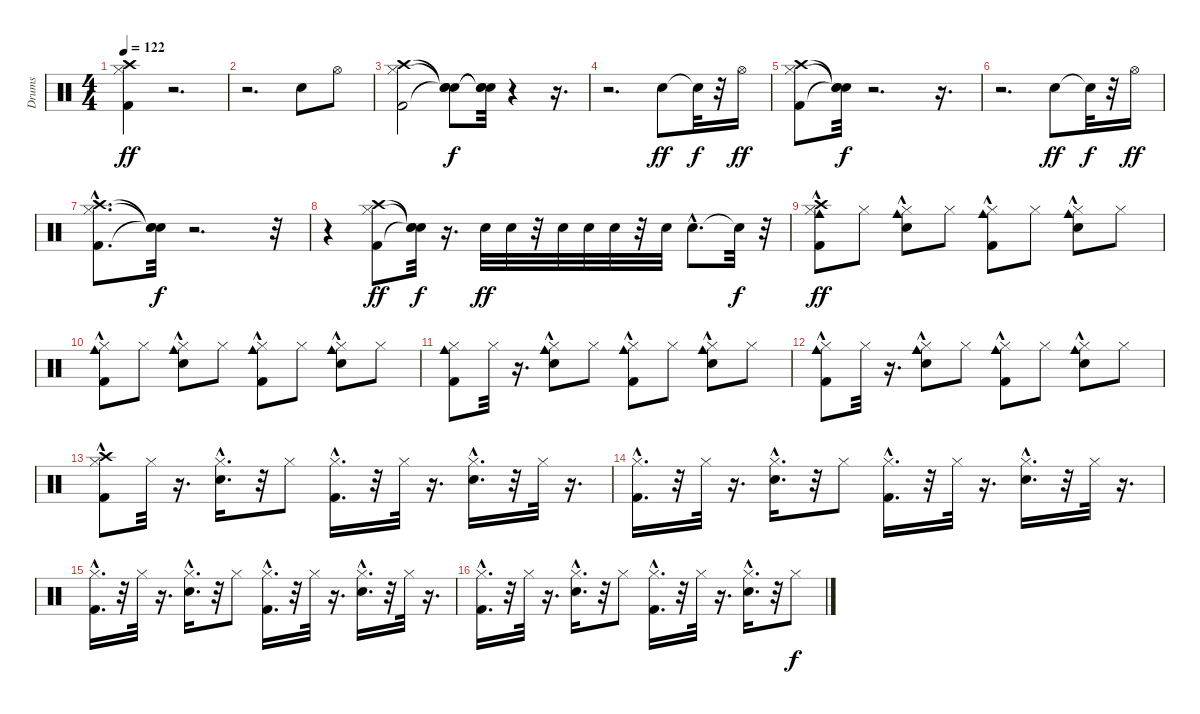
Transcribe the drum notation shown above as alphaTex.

\track ("Drums" "Drums") {instrument percussion}
\staff {score}
\articulation defaults
\ts (4 4)
\tempo 122
\clef neutral
\ks c
("Hi-Hat (closed)" "Kick (hit) 2" "Crash high (hit)").4{dy ff volume 12 balance 8} r.2{d} |
r.2{d} "Snare (hit) 2".8 "Hi-Hat (open)".8 |
("Hi-Hat (closed)" "Kick (hit) 2" "Crash high (hit)").2 ("Snare (hit)"{t} "Snare (hit)"{t} "Snare (hit)"{t}).8{dy f} ("Snare (hit)"{t} "Snare (hit)"{t} "Snare (hit)"{t}).32 r.4 r.16{d} |
r.2{d} "Snare (hit) 2".8{dy ff} "Snare (hit)"{t}.32{dy f} r.32 "Hi-Hat (open)".16{dy ff} |
("Kick (hit) 2" "Hi-Hat (closed)" "Crash high (hit)").8 ("Snare (hit)"{t} "Snare (hit)"{t} "Snare (hit)"{t}).32{dy f} r.2{d} r.16{d} |
r.2{d} "Snare (hit) 2".8{dy ff} "Snare (hit)"{t}.32{dy f} r.32 "Hi-Hat (open)".16{dy ff} |
("Hi-Hat (closed)"{hac} "Kick (hit) 2"{hac} "Crash high (hit)"{hac}).8{d} ("Snare (hit)"{t} "Snare (hit)"{t} "Snare (hit)"{t}).32{dy f} r.2{d} r.32 |
r.4 ("Hi-Hat (closed)" "Kick (hit) 2" "Crash high (hit)").8{dy ff} ("Snare (hit)"{t} "Snare (hit)"{t} "Snare (hit)"{t}).32{dy f} r.16{d} "Snare (hit) 2".32{dy ff} "Snare (hit) 2".32 r.32 "Snare (hit) 2".32 "Snare (hit) 2".32 "Snare (hit) 2".32 r.32 "Snare (hit) 2".32 "Snare (hit) 2"{hac}.8{d} "Snare (hit)"{t}.32{dy f} r.32 |
("Hi-Hat (closed)" "Kick (hit) 2"{hac} "Crash high (hit)"{hac} "Cowbell medium (hit)").8{dy ff} "Hi-Hat (closed)".8 ("Snare (hit) 2"{hac} "Hi-Hat (closed)" "Cowbell medium (hit)").8 "Hi-Hat (closed)".8 ("Kick (hit) 2"{hac} "Hi-Hat (closed)" "Cowbell medium (hit)").8 "Hi-Hat (closed)".8 ("Snare (hit) 2"{hac} "Hi-Hat (closed)" "Cowbell medium (hit)").8 "Hi-Hat (closed)".8 |
("Kick (hit) 2"{hac} "Hi-Hat (closed)" "Cowbell medium (hit)").8 "Hi-Hat (closed)".8 ("Snare (hit) 2"{hac} "Hi-Hat (closed)" "Cowbell medium (hit)").8 "Hi-Hat (closed)".8 ("Kick (hit) 2"{hac} "Hi-Hat (closed)" "Cowbell medium (hit)").8 "Hi-Hat (closed)".8 ("Snare (hit) 2"{hac} "Hi-Hat (closed)" "Cowbell medium (hit)").8 "Hi-Hat (closed)".8 |
("Kick (hit) 2" "Hi-Hat (closed)" "Cowbell medium (hit)").8 "Hi-Hat (closed)".32 r.16{d} ("Snare (hit) 2"{hac} "Hi-Hat (closed)"{hac} "Cowbell medium (hit)").8 "Hi-Hat (closed)".8 ("Kick (hit) 2"{hac} "Hi-Hat (closed)" "Cowbell medium (hit)").8 "Hi-Hat (closed)".8 ("Snare (hit) 2"{hac} "Hi-Hat (closed)" "Cowbell medium (hit)").8 "Hi-Hat (closed)".8 |
("Kick (hit) 2"{hac} "Hi-Hat (closed)"{hac} "Cowbell medium (hit)").8 "Hi-Hat (closed)".32 r.16{d} ("Snare (hit) 2"{hac} "Hi-Hat (closed)"{hac} "Cowbell medium (hit)").8 "Hi-Hat (closed)".8 ("Kick (hit) 2"{hac} "Hi-Hat (closed)" "Cowbell medium (hit)").8 "Hi-Hat (closed)".8 ("Snare (hit) 2"{hac} "Hi-Hat (closed)" "Cowbell medium (hit)").8 "Hi-Hat (closed)".8 |
("Kick (hit) 2"{hac} "Hi-Hat (closed)"{hac} "Crash high (hit)").8 "Hi-Hat (closed)".32 r.16{d} ("Snare (hit) 2"{hac} "Hi-Hat (closed)"{hac}).16{d} r.32 "Hi-Hat (closed)".8 ("Kick (hit) 2"{hac} "Hi-Hat (closed)"{hac}).16{d} r.32 "Hi-Hat (closed)".32 r.16{d} ("Snare (hit) 2"{hac} "Hi-Hat (closed)"{hac}).16{d} r.32 "Hi-Hat (closed)".32 r.16{d} |
("Kick (hit) 2"{hac} "Hi-Hat (closed)"{hac}).16{d} r.32 "Hi-Hat (closed)".32 r.16{d} ("Snare (hit) 2"{hac} "Hi-Hat (closed)"{hac}).16{d} r.32 "Hi-Hat (closed)".8 ("Kick (hit) 2"{hac} "Hi-Hat (closed)"{hac}).16{d} r.32 "Hi-Hat (closed)".32 r.16{d} ("Snare (hit) 2"{hac} "Hi-Hat (closed)"{hac}).16{d} r.32 "Hi-Hat (closed)".32 r.16{d} |
("Kick (hit) 2"{hac} "Hi-Hat (closed)"{hac}).16{d} r.32 "Hi-Hat (closed)".32 r.16{d} ("Snare (hit) 2"{hac} "Hi-Hat (closed)"{hac}).16{d} r.32 "Hi-Hat (closed)".8 ("Kick (hit) 2"{hac} "Hi-Hat (closed)"{hac}).16{d} r.32 "Hi-Hat (closed)".32 r.16{d} ("Snare (hit) 2"{hac} "Hi-Hat (closed)"{hac}).16{d} r.32 "Hi-Hat (closed)".32 r.16{d} |
("Kick (hit) 2"{hac} "Hi-Hat (closed)"{hac}).16{d} r.32 "Hi-Hat (closed)".32 r.16{d} ("Snare (hit) 2"{hac} "Hi-Hat (closed)"{hac}).16{d} r.32 "Hi-Hat (closed)".8 ("Kick (hit) 2"{hac} "Hi-Hat (closed)"{hac}).16{d} r.32 "Hi-Hat (closed)".32 r.16{d} ("Snare (hit) 2"{hac} "Hi-Hat (closed)"{hac}).16{d} r.32 "Hi-Hat (closed)".8{dy f}
